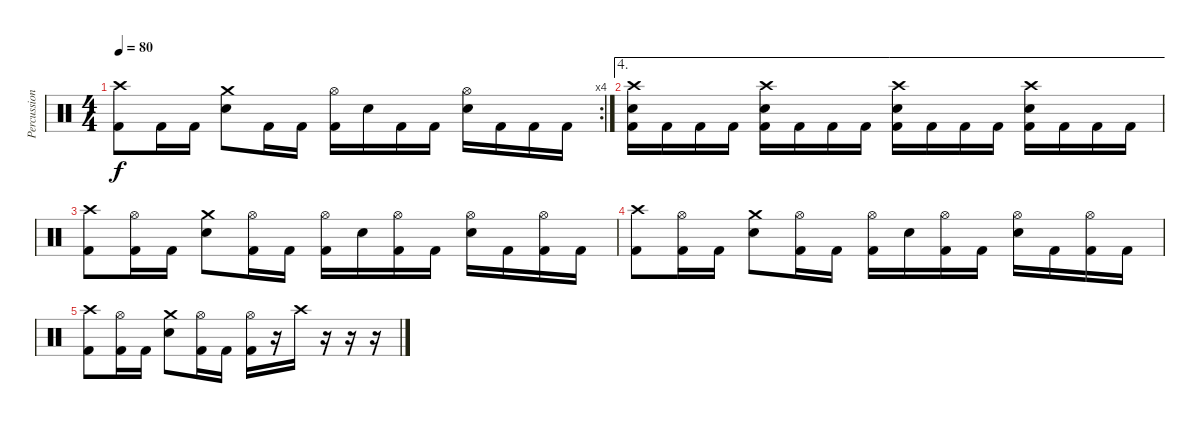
\track ("Percussions" "Percussion") {instrument percussion}
\staff {score}
\articulation defaults
\rc 4
\ts (4 4)
\tempo 80
\clef neutral
\ks c
("Crash high (hit)" "Kick (hit) 2").8{dy f} "Kick (hit) 2".16 "Kick (hit) 2".16 ("Crash medium (hit)" "Electric Snare (hit)").8 "Kick (hit) 2".16 "Kick (hit) 2".16 ("Hi-Hat (open)" "Kick (hit) 2").16 "Electric Snare (hit)".16 "Kick (hit) 2".16 "Kick (hit) 2".16 ("Hi-Hat (open)" "Electric Snare (hit)").16 "Kick (hit) 2".16 "Kick (hit) 2".16 "Kick (hit) 2".16 |
\ae 4
("Crash high (hit)" "Electric Snare (hit)" "Kick (hit) 2").16 "Kick (hit) 2".16 "Kick (hit) 2".16 "Kick (hit) 2".16 ("Crash high (hit)" "Electric Snare (hit)" "Kick (hit) 2").16 "Kick (hit) 2".16 "Kick (hit) 2".16 "Kick (hit) 2".16 ("Crash high (hit)" "Electric Snare (hit)" "Kick (hit) 2").16 "Kick (hit) 2".16 "Kick (hit) 2".16 "Kick (hit) 2".16 ("Crash high (hit)" "Electric Snare (hit)" "Kick (hit) 2").16 "Kick (hit) 2".16 "Kick (hit) 2".16 "Kick (hit) 2".16 |
("Crash high (hit)" "Kick (hit) 2").8 ("Hi-Hat (open)" "Kick (hit) 2").16 "Kick (hit) 2".16 ("Crash medium (hit)" "Electric Snare (hit)").8 ("Hi-Hat (open)" "Kick (hit) 2").16 "Kick (hit) 2".16 ("Hi-Hat (open)" "Kick (hit) 2").16 "Electric Snare (hit)".16 ("Hi-Hat (open)" "Kick (hit) 2").16 "Kick (hit) 2".16 ("Hi-Hat (open)" "Electric Snare (hit)").16 "Kick (hit) 2".16 ("Hi-Hat (open)" "Kick (hit) 2").16 "Kick (hit) 2".16 |
("Crash high (hit)" "Kick (hit) 2").8 ("Hi-Hat (open)" "Kick (hit) 2").16 "Kick (hit) 2".16 ("Crash medium (hit)" "Electric Snare (hit)").8 ("Hi-Hat (open)" "Kick (hit) 2").16 "Kick (hit) 2".16 ("Hi-Hat (open)" "Kick (hit) 2").16 "Electric Snare (hit)".16 ("Hi-Hat (open)" "Kick (hit) 2").16 "Kick (hit) 2".16 ("Hi-Hat (open)" "Electric Snare (hit)").16 "Kick (hit) 2".16 ("Hi-Hat (open)" "Kick (hit) 2").16 "Kick (hit) 2".16 |
("Crash high (hit)" "Kick (hit) 2").8 ("Hi-Hat (open)" "Kick (hit) 2").16 "Kick (hit) 2".16 ("Crash medium (hit)" "Electric Snare (hit)").8 ("Hi-Hat (open)" "Kick (hit) 2").16 "Kick (hit) 2".16 ("Hi-Hat (open)" "Kick (hit) 2").16 r.16 "Crash high (hit)".16 r.16 r.16 r.16
